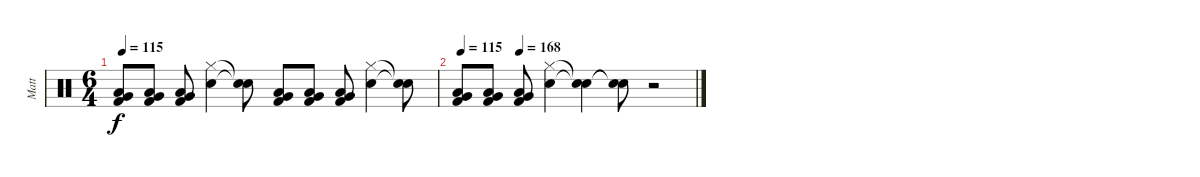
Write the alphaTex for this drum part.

\track ("Matt" "Matt") {instrument percussion}
\staff {score}
\articulation defaults
\ts (6 4)
\tempo 115
\clef neutral
\ks c
("Low Floor Tom (hit)" "Very Low Tom (hit)" "Kick (hit) 2").8{dy f} ("Low Floor Tom (hit)" "Very Low Tom (hit)" "Kick (hit) 2").8 ("Low Floor Tom (hit)" "Very Low Tom (hit)" "Kick (hit) 2").8 ("Hi-Hat (closed)" "Electric Snare (hit)").4 ("Snare (hit)"{t} "Snare (hit)"{t}).8 ("Low Floor Tom (hit)" "Very Low Tom (hit)" "Kick (hit) 2").8 ("Low Floor Tom (hit)" "Very Low Tom (hit)" "Kick (hit) 2").8 ("Low Floor Tom (hit)" "Very Low Tom (hit)" "Kick (hit) 2").8 ("Hi-Hat (closed)" "Electric Snare (hit)").4 ("Snare (hit)"{t} "Snare (hit)"{t}).8 |
\tempo 115
\tempo (168 0.25)
("Low Floor Tom (hit)" "Very Low Tom (hit)" "Kick (hit) 2").8 ("Low Floor Tom (hit)" "Very Low Tom (hit)" "Kick (hit) 2").8 ("Low Floor Tom (hit)" "Very Low Tom (hit)" "Kick (hit) 2").8 ("Hi-Hat (closed)" "Electric Snare (hit)").4 ("Snare (hit)"{t} "Snare (hit)"{t}).4 ("Snare (hit)"{t} "Snare (hit)"{t}).8 r.2
